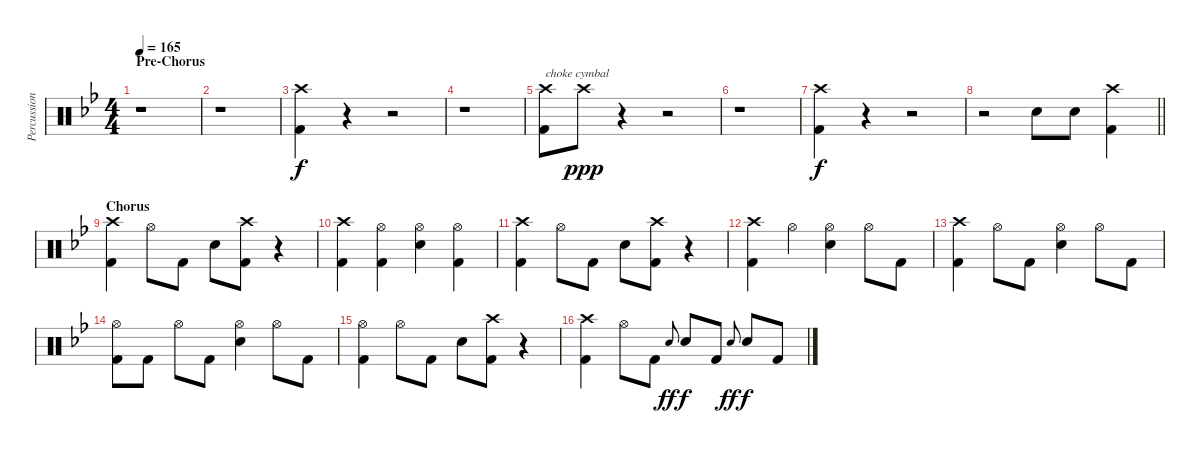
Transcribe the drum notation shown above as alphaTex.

\track ("Percussion - Aaron" "Percussion") {instrument percussion}
\staff {score}
\articulation defaults
\ts (4 4)
\section ("" "Pre-Chorus")
\tempo 165
\clef neutral
\ks gminor
r.1{dy f} |
r.1 |
("Crash high (hit)" "Kick (hit) 2").4 r.4 r.2 |
r.1 |
("Crash high (hit)" "Kick (hit) 2").8{txt "choke cymbal"} "Crash high (hit)".8{dy ppp} r.4 r.2 |
r.1 |
("Crash high (hit)" "Kick (hit) 2").4{dy f} r.4 r.2 |
\barLineRight lightlight
r.2 "Electric Snare (hit)".8 "Electric Snare (hit)".8 ("Crash high (hit)" "Kick (hit) 2").4 |
\section ("" "Chorus")
("Crash high (hit)" "Kick (hit) 2").4 "Hi-Hat (open)".8 "Kick (hit) 2".8 "Electric Snare (hit)".8 ("Crash high (hit)" "Kick (hit) 2").8 r.4 |
("Crash high (hit)" "Kick (hit) 2").4 ("Hi-Hat (open)" "Kick (hit) 2").4 ("Hi-Hat (open)" "Electric Snare (hit)").4 ("Hi-Hat (open)" "Kick (hit) 2").4 |
("Crash high (hit)" "Kick (hit) 2").4 "Hi-Hat (open)".8 "Kick (hit) 2".8 "Electric Snare (hit)".8 ("Crash high (hit)" "Kick (hit) 2").8 r.4 |
("Crash high (hit)" "Kick (hit) 2").4 "Hi-Hat (open)".4 ("Hi-Hat (open)" "Electric Snare (hit)").4 "Hi-Hat (open)".8 "Kick (hit) 2".8 |
("Crash high (hit)" "Kick (hit) 2").4 "Hi-Hat (open)".8 "Kick (hit) 2".8 ("Hi-Hat (open)" "Electric Snare (hit)").4 "Hi-Hat (open)".8 "Kick (hit) 2".8 |
("Hi-Hat (open)" "Kick (hit) 2").8 "Kick (hit) 2".8 "Hi-Hat (open)".8 "Kick (hit) 2".8 ("Hi-Hat (open)" "Electric Snare (hit)").4 "Hi-Hat (open)".8 "Kick (hit) 2".8 |
("Hi-Hat (open)" "Kick (hit) 2").4 "Hi-Hat (open)".8 "Kick (hit) 2".8 "Electric Snare (hit)".8 ("Crash high (hit)" "Kick (hit) 2").8 r.4 |
("Crash high (hit)" "Kick (hit) 2").4 "Hi-Hat (open)".8 "Kick (hit) 2".8 "Electric Snare (hit)".8{gr onbeat dy ff} "Electric Snare (hit)".8{dy f} "Kick (hit) 2".8 "Electric Snare (hit)".8{gr onbeat dy ff} "Electric Snare (hit)".8{dy f} "Kick (hit) 2".8
